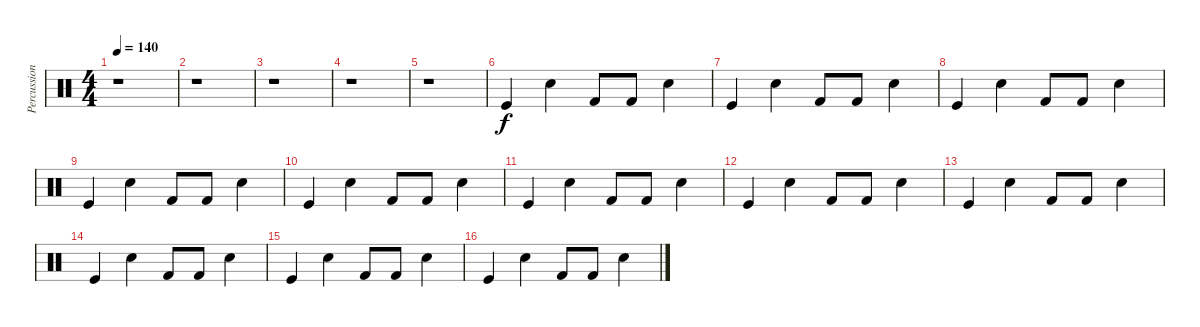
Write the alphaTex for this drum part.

\track ("Percussions" "Percussion") {instrument percussion}
\staff {score}
\articulation defaults
\ts (4 4)
\tempo 140
\clef neutral
\ks c
r.1{dy f} |
r.1 |
r.1 |
r.1 |
r.1 |
"Kick (hit)".4 "Snare (hit) 2".4 "Kick (hit) 2".8 "Kick (hit) 2".8 "Snare (hit) 2".4 |
"Kick (hit)".4 "Snare (hit) 2".4 "Kick (hit) 2".8 "Kick (hit) 2".8 "Snare (hit) 2".4 |
"Kick (hit)".4 "Snare (hit) 2".4 "Kick (hit) 2".8 "Kick (hit) 2".8 "Snare (hit) 2".4 |
"Kick (hit)".4 "Snare (hit) 2".4 "Kick (hit) 2".8 "Kick (hit) 2".8 "Snare (hit) 2".4 |
"Kick (hit)".4 "Snare (hit) 2".4 "Kick (hit) 2".8 "Kick (hit) 2".8 "Snare (hit) 2".4 |
"Kick (hit)".4 "Snare (hit) 2".4 "Kick (hit) 2".8 "Kick (hit) 2".8 "Snare (hit) 2".4 |
"Kick (hit)".4 "Snare (hit) 2".4 "Kick (hit) 2".8 "Kick (hit) 2".8 "Snare (hit) 2".4 |
"Kick (hit)".4 "Snare (hit) 2".4 "Kick (hit) 2".8 "Kick (hit) 2".8 "Snare (hit) 2".4 |
"Kick (hit)".4 "Snare (hit) 2".4 "Kick (hit) 2".8 "Kick (hit) 2".8 "Snare (hit) 2".4 |
"Kick (hit)".4 "Snare (hit) 2".4 "Kick (hit) 2".8 "Kick (hit) 2".8 "Snare (hit) 2".4 |
"Kick (hit)".4 "Snare (hit) 2".4 "Kick (hit) 2".8 "Kick (hit) 2".8 "Snare (hit) 2".4
